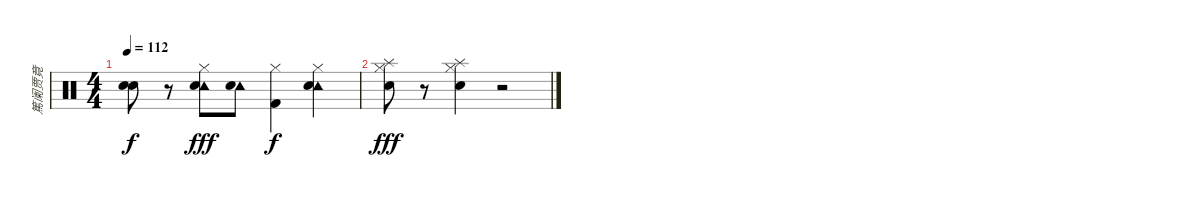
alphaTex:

\track ("篤阑贾竟" "篤阑贾竟") {instrument percussion}
\staff {score}
\articulation defaults
\ts (4 4)
\tempo 112
\clef neutral
\ks c
("Snare (hit)"{t} "Snare (hit)"{t}).8{dy f} r.8 ("Hi-Hat (closed)" "Tambourine (hit)" "Electric Snare (hit)").8{dy fff} ("Tambourine (hit)" "Electric Snare (hit)").8 ("Hi-Hat (closed)" "Kick (hit) 2").4{dy f} ("Hi-Hat (closed)" "Tambourine (hit)" "Electric Snare (hit)").4 |
("Hi-Hat (closed)" "Splash (hit)" "Electric Snare (hit)").8{dy fff} r.8 ("Hi-Hat (closed)" "Splash (hit)" "Electric Snare (hit)").4 r.2
